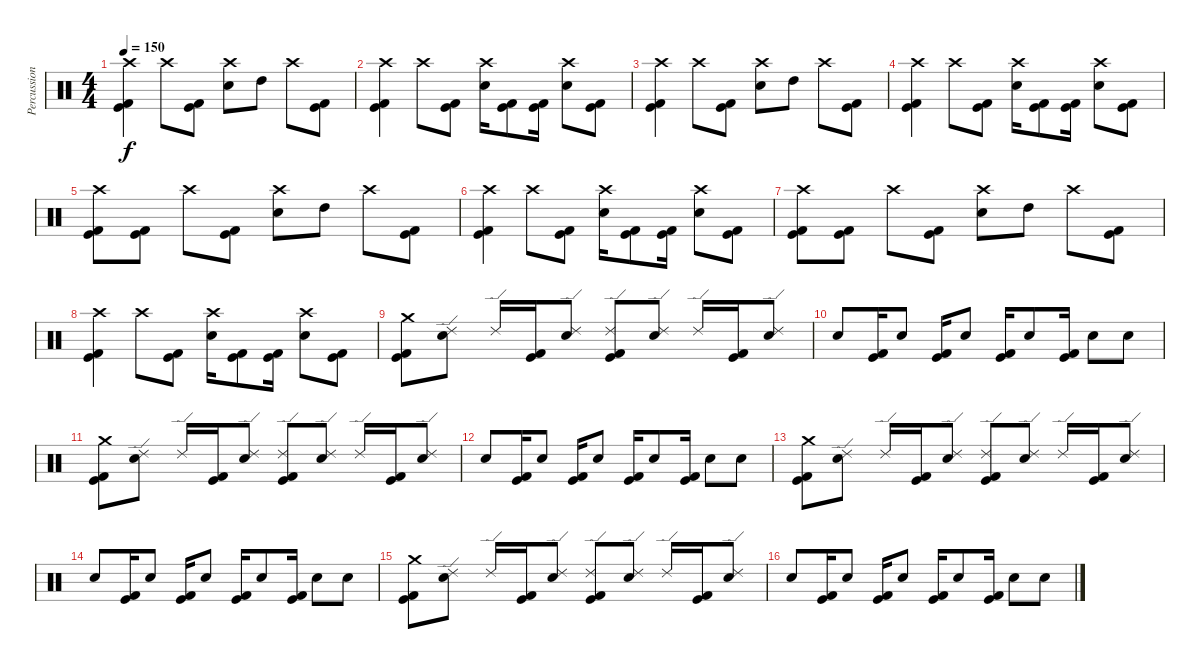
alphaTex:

\track ("Percussion" "Percussion") {instrument percussion}
\staff {score}
\articulation defaults
\ts (4 4)
\tempo 150
\clef neutral
\ks c
("Crash high (hit)" "Kick (hit)" "Kick (hit) 2").4{dy f} "Crash high (hit)".8 ("Kick (hit)" "Kick (hit) 2").8 ("Crash high (hit)" "Electric Snare (hit)").8 "High Tom (hit)".8 "Crash high (hit)".8 ("Kick (hit)" "Kick (hit) 2").8 |
("Crash high (hit)" "Kick (hit)" "Kick (hit) 2").4 "Crash high (hit)".8 ("Kick (hit)" "Kick (hit) 2").8 ("Crash high (hit)" "Electric Snare (hit)").16 ("Kick (hit)" "Kick (hit) 2").8 ("Kick (hit)" "Kick (hit) 2").16 ("Crash high (hit)" "Electric Snare (hit)").8 ("Kick (hit)" "Kick (hit) 2").8 |
("Crash high (hit)" "Kick (hit)" "Kick (hit) 2").4 "Crash high (hit)".8 ("Kick (hit)" "Kick (hit) 2").8 ("Crash high (hit)" "Electric Snare (hit)").8 "High Tom (hit)".8 "Crash high (hit)".8 ("Kick (hit)" "Kick (hit) 2").8 |
("Crash high (hit)" "Kick (hit)" "Kick (hit) 2").4 "Crash high (hit)".8 ("Kick (hit)" "Kick (hit) 2").8 ("Crash high (hit)" "Electric Snare (hit)").16 ("Kick (hit)" "Kick (hit) 2").8 ("Kick (hit)" "Kick (hit) 2").16 ("Crash high (hit)" "Electric Snare (hit)").8 ("Kick (hit)" "Kick (hit) 2").8 |
("Crash high (hit)" "Kick (hit)" "Kick (hit) 2").8 ("Kick (hit)" "Kick (hit) 2").8 "Crash high (hit)".8 ("Kick (hit)" "Kick (hit) 2").8 ("Crash high (hit)" "Electric Snare (hit)").8 "High Tom (hit)".8 "Crash high (hit)".8 ("Kick (hit)" "Kick (hit) 2").8 |
("Crash high (hit)" "Kick (hit)" "Kick (hit) 2").4 "Crash high (hit)".8 ("Kick (hit)" "Kick (hit) 2").8 ("Crash high (hit)" "Electric Snare (hit)").16 ("Kick (hit)" "Kick (hit) 2").8 ("Kick (hit)" "Kick (hit) 2").16 ("Crash high (hit)" "Electric Snare (hit)").8 ("Kick (hit)" "Kick (hit) 2").8 |
("Crash high (hit)" "Kick (hit)" "Kick (hit) 2").8 ("Kick (hit)" "Kick (hit) 2").8 "Crash high (hit)".8 ("Kick (hit)" "Kick (hit) 2").8 ("Crash high (hit)" "Electric Snare (hit)").8 "High Tom (hit)".8 "Crash high (hit)".8 ("Kick (hit)" "Kick (hit) 2").8 |
("Crash high (hit)" "Kick (hit)" "Kick (hit) 2").4 "Crash high (hit)".8 ("Kick (hit)" "Kick (hit) 2").8 ("Crash high (hit)" "Electric Snare (hit)").16 ("Kick (hit)" "Kick (hit) 2").8 ("Kick (hit)" "Kick (hit) 2").16 ("Crash high (hit)" "Electric Snare (hit)").8 ("Kick (hit)" "Kick (hit) 2").8 |
("Crash medium (hit)" "Kick (hit)" "Kick (hit) 2").8 ("Ride (edge) 2" "Electric Snare (hit)").8 "Ride (edge) 2".16 ("Kick (hit)" "Kick (hit) 2").16 ("Ride (edge) 2" "Electric Snare (hit)").8 ("Ride (edge) 2" "Kick (hit)" "Kick (hit) 2").8 ("Ride (edge) 2" "Electric Snare (hit)").8 "Ride (edge) 2".16 ("Kick (hit)" "Kick (hit) 2").16 ("Ride (edge) 2" "Electric Snare (hit)").8 |
"Electric Snare (hit)".8 ("Kick (hit)" "Kick (hit) 2").16 "Electric Snare (hit)".8 ("Kick (hit)" "Kick (hit) 2").16 "Electric Snare (hit)".8 ("Kick (hit)" "Kick (hit) 2").16 "Electric Snare (hit)".8 ("Kick (hit)" "Kick (hit) 2").16 "Electric Snare (hit)".8 "Electric Snare (hit)".8 |
("Crash medium (hit)" "Kick (hit)" "Kick (hit) 2").8 ("Ride (edge) 2" "Electric Snare (hit)").8 "Ride (edge) 2".16 ("Kick (hit)" "Kick (hit) 2").16 ("Ride (edge) 2" "Electric Snare (hit)").8 ("Ride (edge) 2" "Kick (hit)" "Kick (hit) 2").8 ("Ride (edge) 2" "Electric Snare (hit)").8 "Ride (edge) 2".16 ("Kick (hit)" "Kick (hit) 2").16 ("Ride (edge) 2" "Electric Snare (hit)").8 |
"Electric Snare (hit)".8 ("Kick (hit)" "Kick (hit) 2").16 "Electric Snare (hit)".8 ("Kick (hit)" "Kick (hit) 2").16 "Electric Snare (hit)".8 ("Kick (hit)" "Kick (hit) 2").16 "Electric Snare (hit)".8 ("Kick (hit)" "Kick (hit) 2").16 "Electric Snare (hit)".8 "Electric Snare (hit)".8 |
("Crash medium (hit)" "Kick (hit)" "Kick (hit) 2").8 ("Ride (edge) 2" "Electric Snare (hit)").8 "Ride (edge) 2".16 ("Kick (hit)" "Kick (hit) 2").16 ("Ride (edge) 2" "Electric Snare (hit)").8 ("Ride (edge) 2" "Kick (hit)" "Kick (hit) 2").8 ("Ride (edge) 2" "Electric Snare (hit)").8 "Ride (edge) 2".16 ("Kick (hit)" "Kick (hit) 2").16 ("Ride (edge) 2" "Electric Snare (hit)").8 |
"Electric Snare (hit)".8 ("Kick (hit)" "Kick (hit) 2").16 "Electric Snare (hit)".8 ("Kick (hit)" "Kick (hit) 2").16 "Electric Snare (hit)".8 ("Kick (hit)" "Kick (hit) 2").16 "Electric Snare (hit)".8 ("Kick (hit)" "Kick (hit) 2").16 "Electric Snare (hit)".8 "Electric Snare (hit)".8 |
("Crash medium (hit)" "Kick (hit)" "Kick (hit) 2").8 ("Ride (edge) 2" "Electric Snare (hit)").8 "Ride (edge) 2".16 ("Kick (hit)" "Kick (hit) 2").16 ("Ride (edge) 2" "Electric Snare (hit)").8 ("Ride (edge) 2" "Kick (hit)" "Kick (hit) 2").8 ("Ride (edge) 2" "Electric Snare (hit)").8 "Ride (edge) 2".16 ("Kick (hit)" "Kick (hit) 2").16 ("Ride (edge) 2" "Electric Snare (hit)").8 |
"Electric Snare (hit)".8 ("Kick (hit)" "Kick (hit) 2").16 "Electric Snare (hit)".8 ("Kick (hit)" "Kick (hit) 2").16 "Electric Snare (hit)".8 ("Kick (hit)" "Kick (hit) 2").16 "Electric Snare (hit)".8 ("Kick (hit)" "Kick (hit) 2").16 "Electric Snare (hit)".8 "Electric Snare (hit)".8
